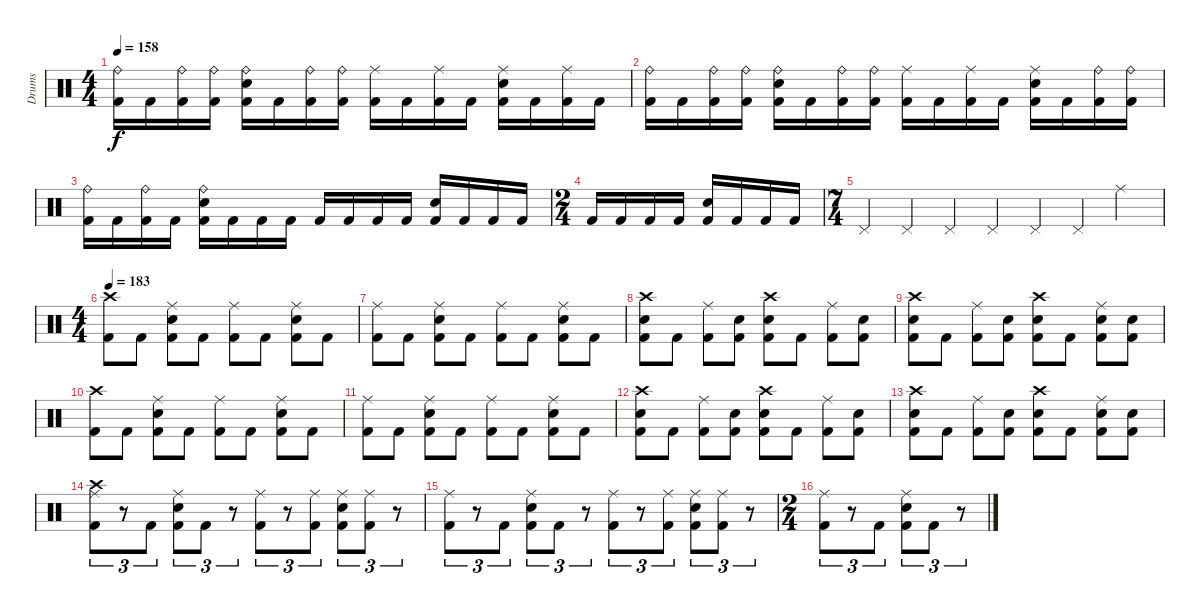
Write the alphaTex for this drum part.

\track ("Drums" "Drums") {instrument percussion}
\staff {score}
\articulation defaults
\ts (4 4)
\tempo 158
\clef neutral
\ks c
("Ride (bell)" "Kick (hit) 2").16{dy f} "Kick (hit) 2".16 ("Ride (bell)" "Kick (hit) 2").16 ("Ride (bell)" "Kick (hit) 2").16 ("Ride (bell)" "Snare (hit) 2" "Kick (hit) 2").16 "Kick (hit) 2".16 ("Ride (bell)" "Kick (hit) 2").16 ("Ride (bell)" "Kick (hit) 2").16 ("Ride (middle)" "Kick (hit) 2").16 "Kick (hit) 2".16 ("Ride (middle)" "Kick (hit) 2").16 "Kick (hit) 2".16 ("Ride (middle)" "Snare (hit) 2" "Kick (hit) 2").16 "Kick (hit) 2".16 ("Ride (middle)" "Kick (hit) 2").16 "Kick (hit) 2".16 |
("Ride (bell)" "Kick (hit) 2").16 "Kick (hit) 2".16 ("Ride (bell)" "Kick (hit) 2").16 ("Ride (bell)" "Kick (hit) 2").16 ("Ride (bell)" "Snare (hit) 2" "Kick (hit) 2").16 "Kick (hit) 2".16 ("Ride (bell)" "Kick (hit) 2").16 ("Ride (bell)" "Kick (hit) 2").16 ("Ride (middle)" "Kick (hit) 2").16 "Kick (hit) 2".16 ("Ride (middle)" "Kick (hit) 2").16 "Kick (hit) 2".16 ("Ride (middle)" "Snare (hit) 2" "Kick (hit) 2").16 "Kick (hit) 2".16 ("Ride (bell)" "Kick (hit) 2").16 ("Ride (bell)" "Kick (hit) 2").16 |
("Ride (bell)" "Kick (hit) 2").16 "Kick (hit) 2".16 ("Ride (bell)" "Kick (hit) 2").16 "Kick (hit) 2".16 ("Ride (bell)" "Snare (hit) 2" "Kick (hit) 2").16 "Kick (hit) 2".16 "Kick (hit) 2".16 "Kick (hit) 2".16 "Kick (hit) 2".16 "Kick (hit) 2".16 "Kick (hit) 2".16 "Kick (hit) 2".16 ("Snare (hit) 2" "Kick (hit) 2").16 "Kick (hit) 2".16 "Kick (hit) 2".16 "Kick (hit) 2".16 |
\ts (2 4)
"Kick (hit) 2".16 "Kick (hit) 2".16 "Kick (hit) 2".16 "Kick (hit) 2".16 ("Snare (hit) 2" "Kick (hit) 2").16 "Kick (hit) 2".16 "Kick (hit) 2".16 "Kick (hit) 2".16 |
\ts (7 4)
"Pedal Hi-Hat (hit)".4 "Pedal Hi-Hat (hit)".4 "Pedal Hi-Hat (hit)".4 "Pedal Hi-Hat (hit)".4 "Pedal Hi-Hat (hit)".4 "Pedal Hi-Hat (hit)".4 "Ride (middle)".4 |
\ts (4 4)
\tempo 183
("Crash high (hit)" "Kick (hit) 2").8 "Kick (hit) 2".8 ("Ride (middle)" "Snare (hit) 2" "Kick (hit) 2").8 "Kick (hit) 2".8 ("Ride (middle)" "Kick (hit) 2").8 "Kick (hit) 2".8 ("Ride (middle)" "Snare (hit) 2" "Kick (hit) 2").8 "Kick (hit) 2".8 |
("Ride (middle)" "Kick (hit) 2").8 "Kick (hit) 2".8 ("Ride (middle)" "Snare (hit) 2" "Kick (hit) 2").8 "Kick (hit) 2".8 ("Ride (middle)" "Kick (hit) 2").8 "Kick (hit) 2".8 ("Ride (middle)" "Snare (hit) 2" "Kick (hit) 2").8 "Kick (hit) 2".8 |
("Crash high (hit)" "Snare (hit) 2" "Kick (hit) 2").8 "Kick (hit) 2".8 ("Ride (middle)" "Kick (hit) 2").8 ("Snare (hit) 2" "Kick (hit) 2").8 ("Crash high (hit)" "Snare (hit) 2" "Kick (hit) 2").8 "Kick (hit) 2".8 ("Ride (middle)" "Kick (hit) 2").8 ("Snare (hit) 2" "Kick (hit) 2").8 |
("Crash high (hit)" "Snare (hit) 2" "Kick (hit) 2").8 "Kick (hit) 2".8 ("Ride (middle)" "Kick (hit) 2").8 ("Snare (hit) 2" "Kick (hit) 2").8 ("Crash high (hit)" "Snare (hit) 2" "Kick (hit) 2").8 "Kick (hit) 2".8 ("Ride (middle)" "Snare (hit) 2" "Kick (hit) 2").8 ("Snare (hit) 2" "Kick (hit) 2").8 |
("Crash high (hit)" "Kick (hit) 2").8 "Kick (hit) 2".8 ("Ride (middle)" "Snare (hit) 2" "Kick (hit) 2").8 "Kick (hit) 2".8 ("Ride (middle)" "Kick (hit) 2").8 "Kick (hit) 2".8 ("Ride (middle)" "Snare (hit) 2" "Kick (hit) 2").8 "Kick (hit) 2".8 |
("Ride (middle)" "Kick (hit) 2").8 "Kick (hit) 2".8 ("Ride (middle)" "Snare (hit) 2" "Kick (hit) 2").8 "Kick (hit) 2".8 ("Ride (middle)" "Kick (hit) 2").8 "Kick (hit) 2".8 ("Ride (middle)" "Snare (hit) 2" "Kick (hit) 2").8 "Kick (hit) 2".8 |
("Crash high (hit)" "Snare (hit) 2" "Kick (hit) 2").8 "Kick (hit) 2".8 ("Ride (middle)" "Kick (hit) 2").8 ("Snare (hit) 2" "Kick (hit) 2").8 ("Crash high (hit)" "Snare (hit) 2" "Kick (hit) 2").8 "Kick (hit) 2".8 ("Ride (middle)" "Kick (hit) 2").8 ("Snare (hit) 2" "Kick (hit) 2").8 |
("Crash high (hit)" "Snare (hit) 2" "Kick (hit) 2").8 "Kick (hit) 2".8 ("Ride (middle)" "Kick (hit) 2").8 ("Snare (hit) 2" "Kick (hit) 2").8 ("Crash high (hit)" "Snare (hit) 2" "Kick (hit) 2").8 "Kick (hit) 2".8 ("Ride (middle)" "Snare (hit) 2" "Kick (hit) 2").8 ("Snare (hit) 2" "Kick (hit) 2").8 |
("Crash high (hit)" "Ride (middle)" "Kick (hit) 2").8{tu (3 2)} r.8{tu (3 2)} "Kick (hit) 2".8{tu (3 2)} ("Ride (middle)" "Snare (hit) 2" "Kick (hit) 2").8{tu (3 2)} "Kick (hit) 2".8{tu (3 2)} r.8{tu (3 2)} ("Ride (middle)" "Kick (hit) 2").8{tu (3 2)} r.8{tu (3 2)} ("Ride (middle)" "Kick (hit) 2").8{tu (3 2)} ("Ride (middle)" "Snare (hit) 2" "Kick (hit) 2").8{tu (3 2)} ("Ride (middle)" "Kick (hit) 2").8{tu (3 2)} r.8{tu (3 2)} |
("Ride (middle)" "Kick (hit) 2").8{tu (3 2)} r.8{tu (3 2)} "Kick (hit) 2".8{tu (3 2)} ("Ride (middle)" "Snare (hit) 2" "Kick (hit) 2").8{tu (3 2)} "Kick (hit) 2".8{tu (3 2)} r.8{tu (3 2)} ("Ride (middle)" "Kick (hit) 2").8{tu (3 2)} r.8{tu (3 2)} ("Ride (middle)" "Kick (hit) 2").8{tu (3 2)} ("Ride (middle)" "Snare (hit) 2" "Kick (hit) 2").8{tu (3 2)} ("Ride (middle)" "Kick (hit) 2").8{tu (3 2)} r.8{tu (3 2)} |
\ts (2 4)
("Ride (middle)" "Kick (hit) 2").8{tu (3 2)} r.8{tu (3 2)} "Kick (hit) 2".8{tu (3 2)} ("Ride (middle)" "Snare (hit) 2" "Kick (hit) 2").8{tu (3 2)} "Kick (hit) 2".8{tu (3 2)} r.8{tu (3 2)}
